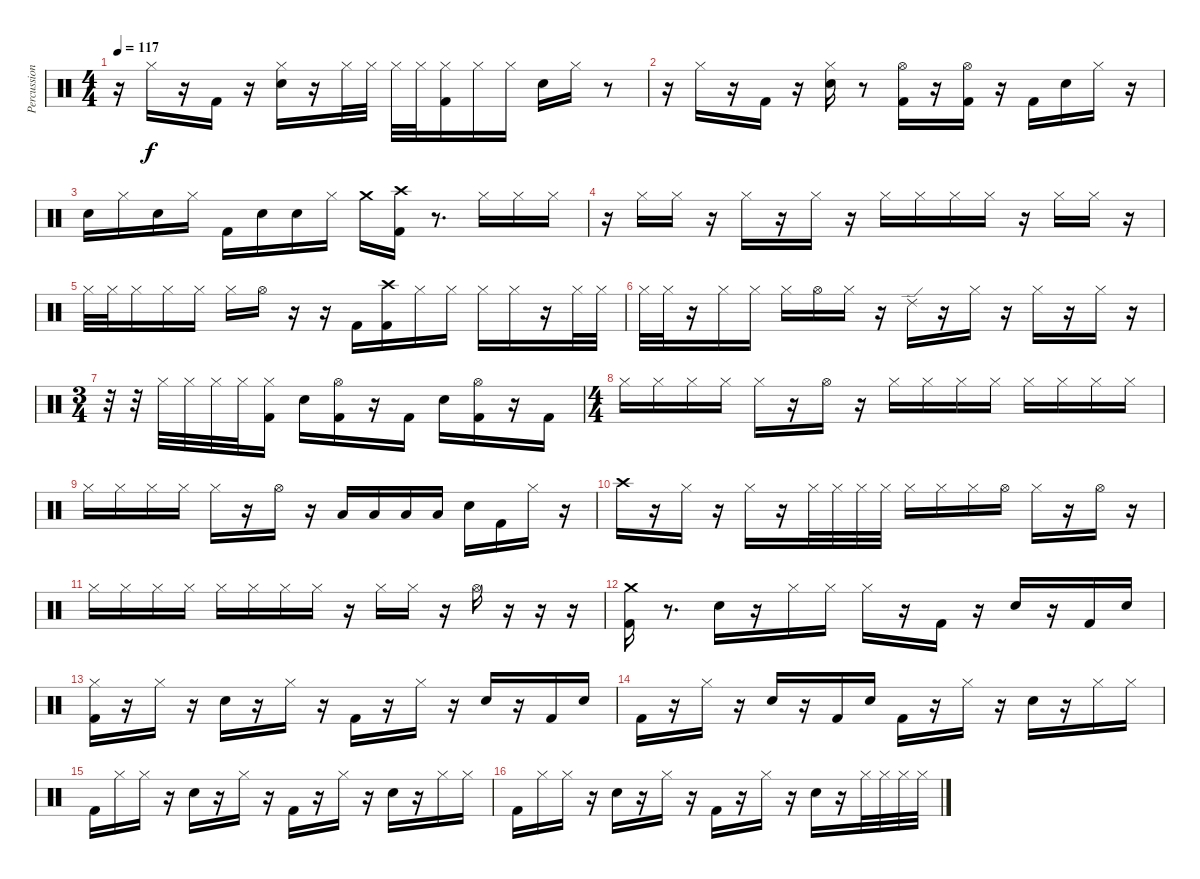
\track ("Percussion" "Percussion") {instrument percussion}
\staff {score}
\articulation defaults
\ts (4 4)
\tempo 117
\clef neutral
\ks c
r.16{dy f} "Hi-Hat (closed)".16 r.16 "Kick (hit) 2".16 r.16 ("Snare (hit) 2" "Hi-Hat (closed)").16 r.16 "Hi-Hat (closed)".32 "Hi-Hat (closed)".32 "Hi-Hat (closed)".32 "Hi-Hat (closed)".32 ("Hi-Hat (closed)" "Kick (hit) 2").16 "Hi-Hat (closed)".16 "Hi-Hat (closed)".16 "Snare (hit) 2".16 "Hi-Hat (closed)".16 r.8 |
r.16 "Hi-Hat (closed)".16 r.16 "Kick (hit) 2".16 r.16 ("Hi-Hat (closed)" "Snare (hit) 2").16 r.8 ("Kick (hit) 2" "Hi-Hat (open)").16 r.16 ("Hi-Hat (open)" "Kick (hit) 2").16 r.16 "Kick (hit) 2".16 "Snare (hit) 2".16 "Hi-Hat (closed)".16 r.16 |
"Snare (hit) 2".16 "Hi-Hat (closed)".16 "Snare (hit) 2".16 "Hi-Hat (closed)".16 "Kick (hit) 2".16 "Snare (hit) 2".16 "Snare (hit) 2".16 "Hi-Hat (closed)".16 "Crash medium (hit)".16 ("Kick (hit) 2" "Crash high (hit)").16 r.8{d} "Hi-Hat (closed)".16 "Hi-Hat (closed)".16 "Hi-Hat (closed)".16 |
r.16 "Hi-Hat (closed)".16 "Hi-Hat (closed)".16 r.16 "Hi-Hat (closed)".16 r.16 "Hi-Hat (closed)".16 r.16 "Hi-Hat (closed)".16 "Hi-Hat (closed)".16 "Hi-Hat (closed)".16 "Hi-Hat (closed)".16 r.16 "Hi-Hat (closed)".16 "Hi-Hat (closed)".16 r.16 |
"Hi-Hat (closed)".32 "Hi-Hat (closed)".32 "Hi-Hat (closed)".16 "Hi-Hat (closed)".16 "Hi-Hat (closed)".16 "Hi-Hat (closed)".16 "Hi-Hat (open)".16 r.16 r.16 "Kick (hit) 2".16 ("Kick (hit) 2" "Crash high (hit)").16 "Hi-Hat (closed)".16 "Hi-Hat (closed)".16 "Hi-Hat (closed)".16 "Hi-Hat (closed)".16 r.16 "Hi-Hat (closed)".32 "Hi-Hat (closed)".32 |
"Hi-Hat (closed)".32 "Hi-Hat (closed)".32 r.16 "Hi-Hat (closed)".16 "Hi-Hat (closed)".16 "Hi-Hat (closed)".16 "Hi-Hat (open)".16 "Hi-Hat (closed)".16 r.16 "Ride (edge) 2".16 r.16 "Hi-Hat (closed)".16 r.16 "Hi-Hat (closed)".16 r.16 "Hi-Hat (closed)".16 r.16 |
\ts (3 4)
r.32 r.32 "Hi-Hat (closed)".32 "Hi-Hat (closed)".32 "Hi-Hat (closed)".32 "Hi-Hat (closed)".32 ("Hi-Hat (closed)" "Kick (hit) 2").16 "Snare (hit) 2".16 ("Kick (hit) 2" "Hi-Hat (open)").16 r.16 "Kick (hit) 2".16 "Snare (hit) 2".16 ("Kick (hit) 2" "Hi-Hat (open)").16 r.16 "Kick (hit) 2".16 |
\ts (4 4)
"Hi-Hat (closed)".16 "Hi-Hat (closed)".16 "Hi-Hat (closed)".16 "Hi-Hat (closed)".16 "Hi-Hat (closed)".16 r.16 "Hi-Hat (open)".16 r.16 "Hi-Hat (closed)".16 "Hi-Hat (closed)".16 "Hi-Hat (closed)".16 "Hi-Hat (closed)".16 "Hi-Hat (closed)".16 "Hi-Hat (closed)".16 "Hi-Hat (closed)".16 "Hi-Hat (closed)".16 |
"Hi-Hat (closed)".16 "Hi-Hat (closed)".16 "Hi-Hat (closed)".16 "Hi-Hat (closed)".16 "Hi-Hat (closed)".16 r.16 "Hi-Hat (open)".16 r.16 "Low Floor Tom (hit)".16 "Low Floor Tom (hit)".16 "Low Floor Tom (hit)".16 "Low Floor Tom (hit)".16 "Snare (hit) 2".16 "Kick (hit) 2".16 "Hi-Hat (closed)".16 r.16 |
"Crash high (hit)".16 r.16 "Hi-Hat (closed)".16 r.16 "Hi-Hat (closed)".16 r.16 "Hi-Hat (closed)".32 "Hi-Hat (closed)".32 "Hi-Hat (closed)".32 "Hi-Hat (closed)".32 "Hi-Hat (closed)".16 "Hi-Hat (closed)".16 "Hi-Hat (closed)".16 "Hi-Hat (open)".16 "Hi-Hat (closed)".16 r.16 "Hi-Hat (open)".16 r.16 |
"Hi-Hat (closed)".16 "Hi-Hat (closed)".16 "Hi-Hat (closed)".16 "Hi-Hat (closed)".16 "Hi-Hat (closed)".16 "Hi-Hat (closed)".16 "Hi-Hat (closed)".16 "Hi-Hat (closed)".16 r.16 "Hi-Hat (closed)".16 "Hi-Hat (closed)".16 r.16 "Hi-Hat (open)".16 r.16 r.16 r.16 |
("Kick (hit) 2" "Crash medium (hit)").16 r.8{d} "Snare (hit) 2".16 r.16 "Hi-Hat (closed)".16 "Hi-Hat (closed)".16 "Hi-Hat (closed)".16 r.16 "Kick (hit) 2".16 r.16 "Snare (hit) 2".16 r.16 "Kick (hit) 2".16 "Snare (hit) 2".16 |
("Kick (hit) 2" "Hi-Hat (closed)").16 r.16 "Hi-Hat (closed)".16 r.16 "Snare (hit) 2".16 r.16 "Hi-Hat (closed)".16 r.16 "Kick (hit) 2".16 r.16 "Hi-Hat (closed)".16 r.16 "Snare (hit) 2".16 r.16 "Kick (hit) 2".16 "Snare (hit) 2".16 |
"Kick (hit) 2".16 r.16 "Hi-Hat (closed)".16 r.16 "Snare (hit) 2".16 r.16 "Kick (hit) 2".16 "Snare (hit) 2".16 "Kick (hit) 2".16 r.16 "Hi-Hat (closed)".16 r.16 "Snare (hit) 2".16 r.16 "Hi-Hat (closed)".16 "Hi-Hat (closed)".16 |
"Kick (hit) 2".16 "Hi-Hat (closed)".16 "Hi-Hat (closed)".16 r.16 "Snare (hit) 2".16 r.16 "Hi-Hat (closed)".16 r.16 "Kick (hit) 2".16 r.16 "Hi-Hat (closed)".16 r.16 "Snare (hit) 2".16 r.16 "Hi-Hat (closed)".16 "Hi-Hat (closed)".16 |
"Kick (hit) 2".16 "Hi-Hat (closed)".16 "Hi-Hat (closed)".16 r.16 "Snare (hit) 2".16 r.16 "Hi-Hat (closed)".16 r.16 "Kick (hit) 2".16 r.16 "Hi-Hat (closed)".16 r.16 "Snare (hit) 2".16 r.16 "Hi-Hat (closed)".32 "Hi-Hat (closed)".32 "Hi-Hat (closed)".32 "Hi-Hat (closed)".32
